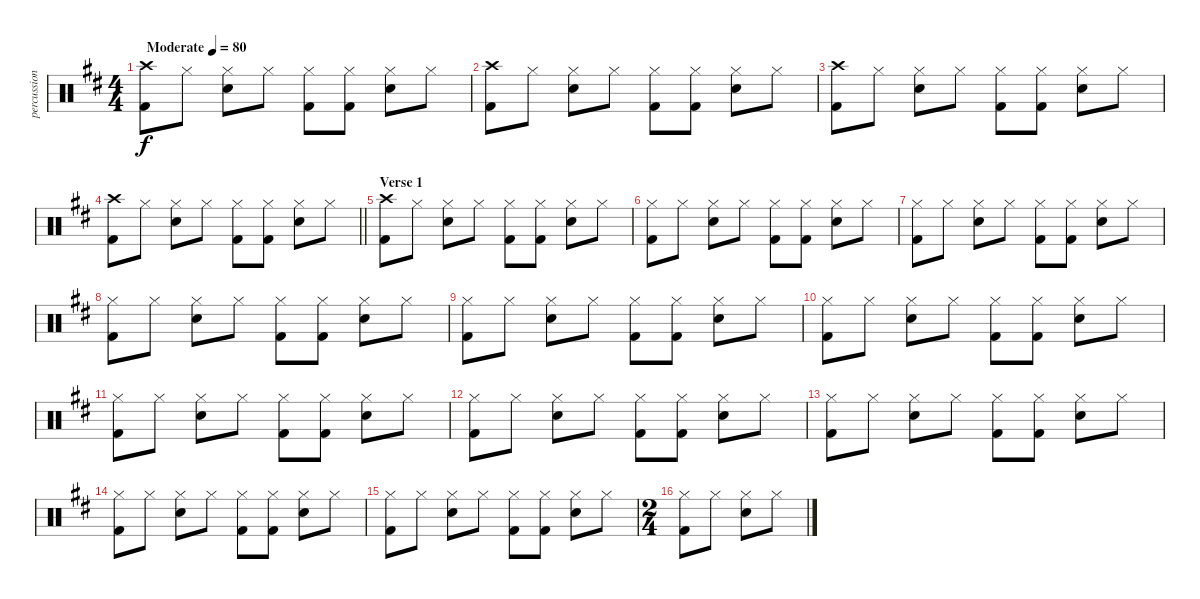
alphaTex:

\track ("percussion" "percussion") {instrument percussion}
\staff {score}
\articulation defaults
\ts (4 4)
\tempo (80 "Moderate")
\clef neutral
\ks d
("Crash high (hit)" "Kick (hit) 2").8{dy f} "Hi-Hat (closed)".8 ("Snare (hit) 2" "Hi-Hat (closed)").8 "Hi-Hat (closed)".8 ("Hi-Hat (closed)" "Kick (hit) 2").8 ("Hi-Hat (closed)" "Kick (hit) 2").8 ("Snare (hit) 2" "Hi-Hat (closed)").8 "Hi-Hat (closed)".8 |
("Crash high (hit)" "Kick (hit) 2").8 "Hi-Hat (closed)".8 ("Snare (hit) 2" "Hi-Hat (closed)").8 "Hi-Hat (closed)".8 ("Hi-Hat (closed)" "Kick (hit) 2").8 ("Hi-Hat (closed)" "Kick (hit) 2").8 ("Snare (hit) 2" "Hi-Hat (closed)").8 "Hi-Hat (closed)".8 |
("Crash high (hit)" "Kick (hit) 2").8 "Hi-Hat (closed)".8 ("Snare (hit) 2" "Hi-Hat (closed)").8 "Hi-Hat (closed)".8 ("Hi-Hat (closed)" "Kick (hit) 2").8 ("Hi-Hat (closed)" "Kick (hit) 2").8 ("Snare (hit) 2" "Hi-Hat (closed)").8 "Hi-Hat (closed)".8 |
\barLineRight lightlight
("Crash high (hit)" "Kick (hit) 2").8 "Hi-Hat (closed)".8 ("Snare (hit) 2" "Hi-Hat (closed)").8 "Hi-Hat (closed)".8 ("Hi-Hat (closed)" "Kick (hit) 2").8 ("Hi-Hat (closed)" "Kick (hit) 2").8 ("Snare (hit) 2" "Hi-Hat (closed)").8 "Hi-Hat (closed)".8 |
\section ("" "Verse 1")
("Crash high (hit)" "Kick (hit) 2").8 "Hi-Hat (closed)".8 ("Snare (hit) 2" "Hi-Hat (closed)").8 "Hi-Hat (closed)".8 ("Hi-Hat (closed)" "Kick (hit) 2").8 ("Hi-Hat (closed)" "Kick (hit) 2").8 ("Snare (hit) 2" "Hi-Hat (closed)").8 "Hi-Hat (closed)".8 |
("Hi-Hat (closed)" "Kick (hit) 2").8 "Hi-Hat (closed)".8 ("Snare (hit) 2" "Hi-Hat (closed)").8 "Hi-Hat (closed)".8 ("Hi-Hat (closed)" "Kick (hit) 2").8 ("Hi-Hat (closed)" "Kick (hit) 2").8 ("Snare (hit) 2" "Hi-Hat (closed)").8 "Hi-Hat (closed)".8 |
("Hi-Hat (closed)" "Kick (hit) 2").8 "Hi-Hat (closed)".8 ("Snare (hit) 2" "Hi-Hat (closed)").8 "Hi-Hat (closed)".8 ("Hi-Hat (closed)" "Kick (hit) 2").8 ("Hi-Hat (closed)" "Kick (hit) 2").8 ("Snare (hit) 2" "Hi-Hat (closed)").8 "Hi-Hat (closed)".8 |
("Hi-Hat (closed)" "Kick (hit) 2").8 "Hi-Hat (closed)".8 ("Snare (hit) 2" "Hi-Hat (closed)").8 "Hi-Hat (closed)".8 ("Hi-Hat (closed)" "Kick (hit) 2").8 ("Hi-Hat (closed)" "Kick (hit) 2").8 ("Snare (hit) 2" "Hi-Hat (closed)").8 "Hi-Hat (closed)".8 |
("Hi-Hat (closed)" "Kick (hit) 2").8 "Hi-Hat (closed)".8 ("Snare (hit) 2" "Hi-Hat (closed)").8 "Hi-Hat (closed)".8 ("Hi-Hat (closed)" "Kick (hit) 2").8 ("Hi-Hat (closed)" "Kick (hit) 2").8 ("Snare (hit) 2" "Hi-Hat (closed)").8 "Hi-Hat (closed)".8 |
("Hi-Hat (closed)" "Kick (hit) 2").8 "Hi-Hat (closed)".8 ("Snare (hit) 2" "Hi-Hat (closed)").8 "Hi-Hat (closed)".8 ("Hi-Hat (closed)" "Kick (hit) 2").8 ("Hi-Hat (closed)" "Kick (hit) 2").8 ("Snare (hit) 2" "Hi-Hat (closed)").8 "Hi-Hat (closed)".8 |
("Hi-Hat (closed)" "Kick (hit) 2").8 "Hi-Hat (closed)".8 ("Snare (hit) 2" "Hi-Hat (closed)").8 "Hi-Hat (closed)".8 ("Hi-Hat (closed)" "Kick (hit) 2").8 ("Hi-Hat (closed)" "Kick (hit) 2").8 ("Snare (hit) 2" "Hi-Hat (closed)").8 "Hi-Hat (closed)".8 |
("Hi-Hat (closed)" "Kick (hit) 2").8 "Hi-Hat (closed)".8 ("Snare (hit) 2" "Hi-Hat (closed)").8 "Hi-Hat (closed)".8 ("Hi-Hat (closed)" "Kick (hit) 2").8 ("Hi-Hat (closed)" "Kick (hit) 2").8 ("Snare (hit) 2" "Hi-Hat (closed)").8 "Hi-Hat (closed)".8 |
("Hi-Hat (closed)" "Kick (hit) 2").8 "Hi-Hat (closed)".8 ("Snare (hit) 2" "Hi-Hat (closed)").8 "Hi-Hat (closed)".8 ("Hi-Hat (closed)" "Kick (hit) 2").8 ("Hi-Hat (closed)" "Kick (hit) 2").8 ("Snare (hit) 2" "Hi-Hat (closed)").8 "Hi-Hat (closed)".8 |
("Hi-Hat (closed)" "Kick (hit) 2").8 "Hi-Hat (closed)".8 ("Snare (hit) 2" "Hi-Hat (closed)").8 "Hi-Hat (closed)".8 ("Hi-Hat (closed)" "Kick (hit) 2").8 ("Hi-Hat (closed)" "Kick (hit) 2").8 ("Snare (hit) 2" "Hi-Hat (closed)").8 "Hi-Hat (closed)".8 |
("Hi-Hat (closed)" "Kick (hit) 2").8 "Hi-Hat (closed)".8 ("Snare (hit) 2" "Hi-Hat (closed)").8 "Hi-Hat (closed)".8 ("Hi-Hat (closed)" "Kick (hit) 2").8 ("Hi-Hat (closed)" "Kick (hit) 2").8 ("Snare (hit) 2" "Hi-Hat (closed)").8 "Hi-Hat (closed)".8 |
\ts (2 4)
("Hi-Hat (closed)" "Kick (hit) 2").8 "Hi-Hat (closed)".8 ("Snare (hit) 2" "Hi-Hat (closed)").8 "Hi-Hat (closed)".8
